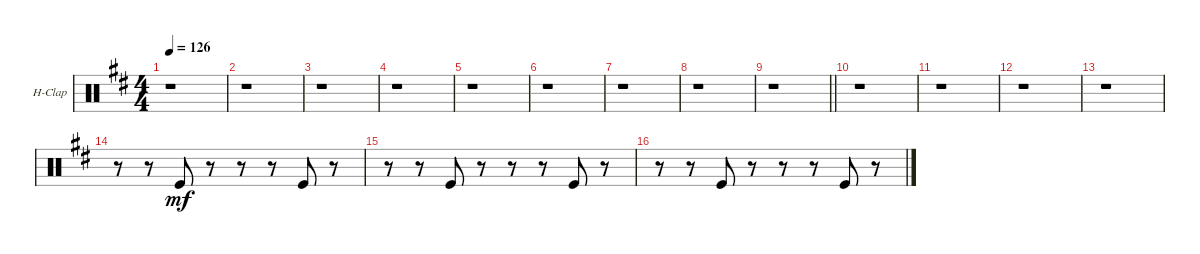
\bracketExtendMode groupsimilarinstruments
\firstSystemTrackNameOrientation horizontal
\otherSystemsTrackNameOrientation horizontal
\track ("Hand Clap" "H-Clap") {instrument percussion}
\staff {score}
\articulation defaults
\ts (4 4)
\tempo 126
\clef neutral
\scale
0.333333
\ks d
r.1{dy mf} |
\scale
0.333333 r.1 |
\scale
0.3829
\scale
0.333333 r.1 |
\scale
0.294983
\scale
0.333333 r.1 |
\scale
0.321899
\scale
0.333333 r.1 |
\scale
0.634111
\scale
0.333333 r.1 |
\scale
0.365973
\scale
0.333333 r.1 |
\scale
0.364305
\scale
0.333333 r.1 |
\scale
0.361541
\scale
0.333333
\barLineRight lightlight
r.1 |
\scale
0.274306
\scale
0.333333 r.1 |
\scale
0.333333 r.1 |
\scale
0.333333 r.1 |
\scale
0.333333 r.1 |
\scale
0.333333 r.8 r.8 "Kick (hit)".8 r.8 r.8 r.8 "Kick (hit)".8 r.8 |
\scale
0.333333 r.8 r.8 "Kick (hit)".8 r.8 r.8 r.8 "Kick (hit)".8 r.8 |
\scale
0.333333 r.8 r.8 "Kick (hit)".8 r.8 r.8 r.8 "Kick (hit)".8 r.8
